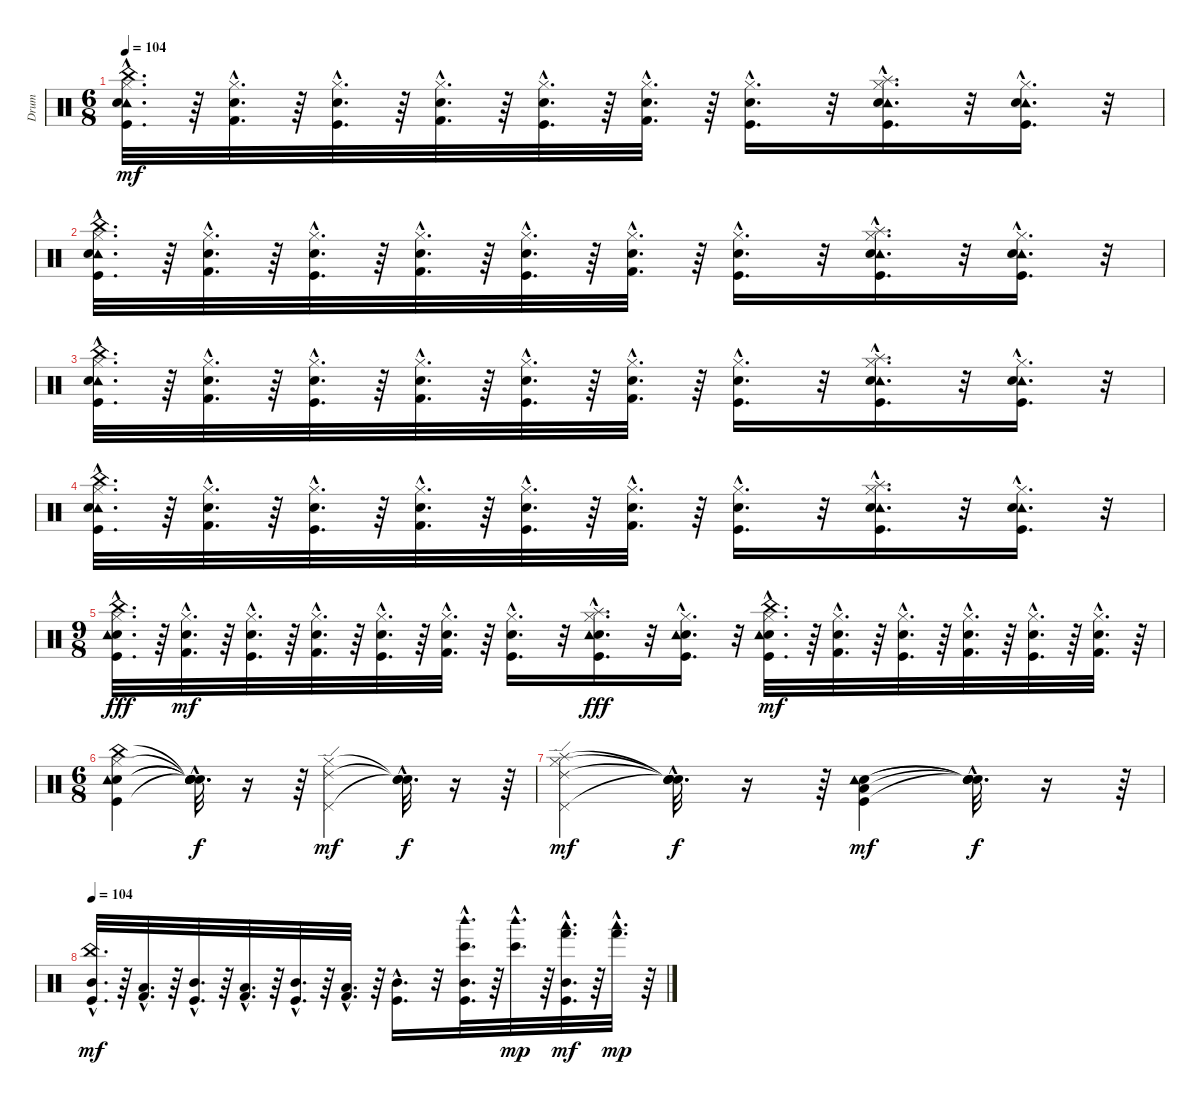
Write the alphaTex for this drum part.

\track ("Drum" "Drum") {instrument percussion}
\staff {score}
\articulation defaults
\ts (6 8)
\tempo 104
\clef neutral
\ks c
("Tambourine (hit)"{hac} "Snare (hit) 2"{hac} "Kick (hit)"{hac} "Hi-Hat (closed)"{hac} "China (hit)"{hac}).32{d dy mf} r.64 ("Electric Snare (hit)"{hac} "Kick (hit) 2"{hac} "Hi-Hat (closed)"{hac}).32{d} r.64 ("Snare (hit) 2"{hac} "Kick (hit)"{hac} "Hi-Hat (closed)"{hac}).32{d} r.64 ("Electric Snare (hit)"{hac} "Kick (hit) 2"{hac} "Hi-Hat (closed)"{hac}).32{d} r.64 ("Snare (hit) 2"{hac} "Kick (hit)"{hac} "Hi-Hat (closed)"{hac}).32{d} r.64 ("Electric Snare (hit)"{hac} "Kick (hit) 2"{hac} "Hi-Hat (closed)"{hac}).32{d} r.64 ("Snare (hit) 2"{hac} "Kick (hit)"{hac} "Hi-Hat (closed)"{hac}).16{d} r.32 ("Tambourine (hit)"{hac} "Snare (hit) 2"{hac} "Splash (hit)"{hac} "Kick (hit)"{hac} "Hi-Hat (closed)"{hac}).16{d} r.32 ("Tambourine (hit)"{hac} "Snare (hit) 2"{hac} "Kick (hit)"{hac} "Hi-Hat (closed)"{hac}).16{d} r.32 |
("Tambourine (hit)"{hac} "Snare (hit) 2"{hac} "Kick (hit)"{hac} "Hi-Hat (closed)"{hac} "China (hit)"{hac}).32{d} r.64 ("Electric Snare (hit)"{hac} "Kick (hit) 2"{hac} "Hi-Hat (closed)"{hac}).32{d} r.64 ("Snare (hit) 2"{hac} "Kick (hit)"{hac} "Hi-Hat (closed)"{hac}).32{d} r.64 ("Electric Snare (hit)"{hac} "Kick (hit) 2"{hac} "Hi-Hat (closed)"{hac}).32{d} r.64 ("Snare (hit) 2"{hac} "Kick (hit)"{hac} "Hi-Hat (closed)"{hac}).32{d} r.64 ("Electric Snare (hit)"{hac} "Kick (hit) 2"{hac} "Hi-Hat (closed)"{hac}).32{d} r.64 ("Snare (hit) 2"{hac} "Kick (hit)"{hac} "Hi-Hat (closed)"{hac}).16{d} r.32 ("Tambourine (hit)"{hac} "Snare (hit) 2"{hac} "Splash (hit)"{hac} "Kick (hit)"{hac} "Hi-Hat (closed)"{hac}).16{d} r.32 ("Tambourine (hit)"{hac} "Snare (hit) 2"{hac} "Kick (hit)"{hac} "Hi-Hat (closed)"{hac}).16{d} r.32 |
("Tambourine (hit)"{hac} "Snare (hit) 2"{hac} "Kick (hit)"{hac} "Hi-Hat (closed)"{hac} "China (hit)"{hac}).32{d} r.64 ("Electric Snare (hit)"{hac} "Kick (hit) 2"{hac} "Hi-Hat (closed)"{hac}).32{d} r.64 ("Snare (hit) 2"{hac} "Kick (hit)"{hac} "Hi-Hat (closed)"{hac}).32{d} r.64 ("Electric Snare (hit)"{hac} "Kick (hit) 2"{hac} "Hi-Hat (closed)"{hac}).32{d} r.64 ("Snare (hit) 2"{hac} "Kick (hit)"{hac} "Hi-Hat (closed)"{hac}).32{d} r.64 ("Electric Snare (hit)"{hac} "Kick (hit) 2"{hac} "Hi-Hat (closed)"{hac}).32{d} r.64 ("Snare (hit) 2"{hac} "Kick (hit)"{hac} "Hi-Hat (closed)"{hac}).16{d} r.32 ("Tambourine (hit)"{hac} "Snare (hit) 2"{hac} "Splash (hit)"{hac} "Kick (hit)"{hac} "Hi-Hat (closed)"{hac}).16{d} r.32 ("Tambourine (hit)"{hac} "Snare (hit) 2"{hac} "Kick (hit)"{hac} "Hi-Hat (closed)"{hac}).16{d} r.32 |
("Tambourine (hit)"{hac} "Snare (hit) 2"{hac} "Kick (hit)"{hac} "Hi-Hat (closed)"{hac} "China (hit)"{hac}).32{d} r.64 ("Electric Snare (hit)"{hac} "Kick (hit) 2"{hac} "Hi-Hat (closed)"{hac}).32{d} r.64 ("Snare (hit) 2"{hac} "Kick (hit)"{hac} "Hi-Hat (closed)"{hac}).32{d} r.64 ("Electric Snare (hit)"{hac} "Kick (hit) 2"{hac} "Hi-Hat (closed)"{hac}).32{d} r.64 ("Snare (hit) 2"{hac} "Kick (hit)"{hac} "Hi-Hat (closed)"{hac}).32{d} r.64 ("Electric Snare (hit)"{hac} "Kick (hit) 2"{hac} "Hi-Hat (closed)"{hac}).32{d} r.64 ("Snare (hit) 2"{hac} "Kick (hit)"{hac} "Hi-Hat (closed)"{hac}).16{d} r.32 ("Tambourine (hit)"{hac} "Snare (hit) 2"{hac} "Splash (hit)"{hac} "Kick (hit)"{hac} "Hi-Hat (closed)"{hac}).16{d} r.32 ("Tambourine (hit)"{hac} "Snare (hit) 2"{hac} "Kick (hit)"{hac} "Hi-Hat (closed)"{hac}).16{d} r.32 |
\ts (9 8)
("Hi-Hat (closed)"{hac} "Kick (hit)"{hac} "China (hit)"{hac} "Snare (hit) 2"{hac} "Tambourine (hit)"{hac}).32{d dy fff} r.64 ("Electric Snare (hit)"{hac} "Hi-Hat (closed)"{hac} "Kick (hit) 2"{hac}).32{d dy mf} r.64 ("Hi-Hat (closed)"{hac} "Kick (hit)"{hac} "Snare (hit) 2"{hac}).32{d} r.64 ("Hi-Hat (closed)"{hac} "Kick (hit) 2"{hac} "Electric Snare (hit)"{hac}).32{d} r.64 ("Snare (hit) 2"{hac} "Kick (hit)"{hac} "Hi-Hat (closed)"{hac}).32{d} r.64 ("Hi-Hat (closed)"{hac} "Kick (hit) 2"{hac} "Electric Snare (hit)"{hac}).32{d} r.64 ("Kick (hit)"{hac} "Hi-Hat (closed)"{hac} "Snare (hit) 2"{hac}).16{d} r.32 ("Hi-Hat (closed)"{hac} "Kick (hit)"{hac} "Splash (hit)"{hac} "Snare (hit) 2"{hac} "Tambourine (hit)"{hac}).16{d dy fff} r.32 ("Hi-Hat (closed)"{hac} "Kick (hit)"{hac} "Snare (hit) 2"{hac} "Tambourine (hit)"{hac}).16{d} r.32 ("Snare (hit) 2"{hac} "Kick (hit)"{hac} "Tambourine (hit)"{hac} "Hi-Hat (closed)"{hac} "China (hit)"{hac}).32{d dy mf} r.64 ("Hi-Hat (closed)"{hac} "Kick (hit) 2"{hac} "Electric Snare (hit)"{hac}).32{d} r.64 ("Hi-Hat (closed)"{hac} "Kick (hit)"{hac} "Snare (hit) 2"{hac}).32{d} r.64 ("Hi-Hat (closed)"{hac} "Kick (hit) 2"{hac} "Electric Snare (hit)"{hac}).32{d} r.64 ("Snare (hit) 2"{hac} "Kick (hit)"{hac} "Hi-Hat (closed)"{hac}).32{d} r.64 ("Electric Snare (hit)"{hac} "Kick (hit) 2"{hac} "Hi-Hat (closed)"{hac}).32{d} r.64 |
\ts (6 8)
("Kick (hit)" "Snare (hit) 2" "Hi-Hat (closed)" "China (hit)" "Tambourine (hit)").4 ("Snare (hit)"{hac t} "Snare (hit)"{hac t} "Snare (hit)"{hac t} "Snare (hit)"{hac t} "Snare (hit)"{hac t}).32{d dy f} r.16 r.64 ("Hi-Hat (closed)" "Pedal Hi-Hat (hit)" "Ride (edge) 2").4{dy mf} ("Snare (hit)"{hac t} "Snare (hit)"{hac t} "Snare (hit)"{hac t}).32{d dy f} r.16 r.64 |
("Splash (hit)" "Hi-Hat (closed)" "Pedal Hi-Hat (hit)" "Ride (edge) 2").4{dy mf} ("Snare (hit)"{hac t} "Snare (hit)"{hac t} "Snare (hit)"{hac t} "Snare (hit)"{hac t}).32{d dy f} r.16 r.64 ("Snare (hit) 2" "Tambourine (hit)" "Low Tom (hit)" "Kick (hit)").4{dy mf} ("Snare (hit)"{hac t} "Snare (hit)"{hac t} "Snare (hit)"{hac t} "Snare (hit)"{hac t}).32{d dy f} r.16 r.64 |
\tempo 104
("Kick (hit)"{hac} "China (hit)"{hac} "Mid Tom (hit)"{hac}).32{d dy mf} r.64 ("Kick (hit) 2"{hac} "Low Tom (hit)"{hac}).32{d} r.64 ("Kick (hit)"{hac} "Mid Tom (hit)"{hac}).32{d} r.64 ("Kick (hit) 2"{hac} "Low Tom (hit)"{hac}).32{d} r.64 ("Kick (hit)"{hac} "Mid Tom (hit)"{hac}).32{d} r.64 ("Kick (hit) 2"{hac} "Low Tom (hit)"{hac}).32{d} r.64 ("Mid Tom (hit)"{hac} "Kick (hit)"{hac}).16{d} r.32 ("Woodblock high (hit)"{hac} "Bongo High (hit)"{hac} "Kick (hit)"{hac} "Mid Tom (hit)"{hac}).32{d} r.64 ("Woodblock high (hit)"{hac} "Bongo High (hit)"{hac}).32{d dy mp} r.64 ("Woodblock low (hit)"{hac} "Hand (hit)"{hac} "Kick (hit)"{hac} "Mid Tom (hit)"{hac}).32{d dy mf} r.64 ("Woodblock low (hit)"{hac} "Hand (hit)"{hac}).32{d dy mp} r.64
